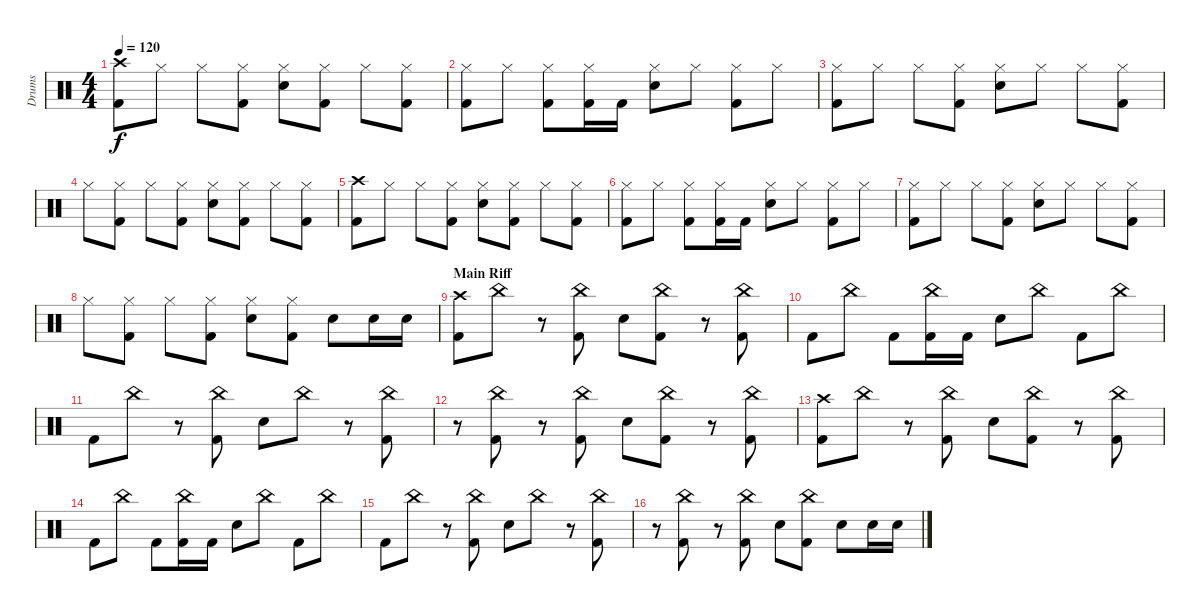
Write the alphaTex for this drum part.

\track ("Drums" "Drums") {instrument percussion}
\staff {score}
\articulation defaults
\ts (4 4)
\tempo 120
\clef neutral
\ks c
("Crash high (hit)" "Kick (hit) 2").8{dy f} "Hi-Hat (closed)".8 "Hi-Hat (closed)".8 ("Hi-Hat (closed)" "Kick (hit) 2").8 ("Hi-Hat (closed)" "Snare (hit) 2").8 ("Hi-Hat (closed)" "Kick (hit) 2").8 "Hi-Hat (closed)".8 ("Hi-Hat (closed)" "Kick (hit) 2").8 |
("Hi-Hat (closed)" "Kick (hit) 2").8 "Hi-Hat (closed)".8 ("Hi-Hat (closed)" "Kick (hit) 2").8 ("Hi-Hat (closed)" "Kick (hit) 2").16 "Kick (hit) 2".16 ("Hi-Hat (closed)" "Snare (hit) 2").8 "Hi-Hat (closed)".8 ("Hi-Hat (closed)" "Kick (hit) 2").8 "Hi-Hat (closed)".8 |
("Hi-Hat (closed)" "Kick (hit) 2").8 "Hi-Hat (closed)".8 "Hi-Hat (closed)".8 ("Hi-Hat (closed)" "Kick (hit) 2").8 ("Hi-Hat (closed)" "Snare (hit) 2").8 "Hi-Hat (closed)".8 "Hi-Hat (closed)".8 ("Hi-Hat (closed)" "Kick (hit) 2").8 |
"Hi-Hat (closed)".8 ("Hi-Hat (closed)" "Kick (hit) 2").8 "Hi-Hat (closed)".8 ("Hi-Hat (closed)" "Kick (hit) 2").8 ("Hi-Hat (closed)" "Snare (hit) 2").8 ("Hi-Hat (closed)" "Kick (hit) 2").8 "Hi-Hat (closed)".8 ("Hi-Hat (closed)" "Kick (hit) 2").8 |
("Crash high (hit)" "Kick (hit) 2").8 "Hi-Hat (closed)".8 "Hi-Hat (closed)".8 ("Hi-Hat (closed)" "Kick (hit) 2").8 ("Hi-Hat (closed)" "Snare (hit) 2").8 ("Hi-Hat (closed)" "Kick (hit) 2").8 "Hi-Hat (closed)".8 ("Hi-Hat (closed)" "Kick (hit) 2").8 |
("Hi-Hat (closed)" "Kick (hit) 2").8 "Hi-Hat (closed)".8 ("Hi-Hat (closed)" "Kick (hit) 2").8 ("Hi-Hat (closed)" "Kick (hit) 2").16 "Kick (hit) 2".16 ("Hi-Hat (closed)" "Snare (hit) 2").8 "Hi-Hat (closed)".8 ("Hi-Hat (closed)" "Kick (hit) 2").8 "Hi-Hat (closed)".8 |
("Hi-Hat (closed)" "Kick (hit) 2").8 "Hi-Hat (closed)".8 "Hi-Hat (closed)".8 ("Hi-Hat (closed)" "Kick (hit) 2").8 ("Hi-Hat (closed)" "Snare (hit) 2").8 "Hi-Hat (closed)".8 "Hi-Hat (closed)".8 ("Hi-Hat (closed)" "Kick (hit) 2").8 |
"Hi-Hat (closed)".8 ("Hi-Hat (closed)" "Kick (hit) 2").8 "Hi-Hat (closed)".8 ("Hi-Hat (closed)" "Kick (hit) 2").8 ("Hi-Hat (closed)" "Snare (hit) 2").8 ("Hi-Hat (closed)" "Kick (hit) 2").8 "Snare (hit) 2".8 "Snare (hit) 2".16 "Snare (hit) 2".16 |
\section ("" "Main Riff")
("Crash high (hit)" "Kick (hit) 2").8 "China (hit)".8 r.8 ("China (hit)" "Kick (hit) 2").8 "Snare (hit) 2".8 ("China (hit)" "Kick (hit) 2").8 r.8 ("China (hit)" "Kick (hit) 2").8 |
"Kick (hit) 2".8 "China (hit)".8 "Kick (hit) 2".8 ("China (hit)" "Kick (hit) 2").16 "Kick (hit) 2".16 "Snare (hit) 2".8 "China (hit)".8 "Kick (hit) 2".8 "China (hit)".8 |
"Kick (hit) 2".8 "China (hit)".8 r.8 ("China (hit)" "Kick (hit) 2").8 "Snare (hit) 2".8 "China (hit)".8 r.8 ("China (hit)" "Kick (hit) 2").8 |
r.8 ("China (hit)" "Kick (hit) 2").8 r.8 ("China (hit)" "Kick (hit) 2").8 "Snare (hit) 2".8 ("China (hit)" "Kick (hit) 2").8 r.8 ("China (hit)" "Kick (hit) 2").8 |
("Crash high (hit)" "Kick (hit) 2").8 "China (hit)".8 r.8 ("China (hit)" "Kick (hit) 2").8 "Snare (hit) 2".8 ("China (hit)" "Kick (hit) 2").8 r.8 ("China (hit)" "Kick (hit) 2").8 |
"Kick (hit) 2".8 "China (hit)".8 "Kick (hit) 2".8 ("China (hit)" "Kick (hit) 2").16 "Kick (hit) 2".16 "Snare (hit) 2".8 "China (hit)".8 "Kick (hit) 2".8 "China (hit)".8 |
"Kick (hit) 2".8 "China (hit)".8 r.8 ("China (hit)" "Kick (hit) 2").8 "Snare (hit) 2".8 "China (hit)".8 r.8 ("China (hit)" "Kick (hit) 2").8 |
r.8 ("China (hit)" "Kick (hit) 2").8 r.8 ("China (hit)" "Kick (hit) 2").8 "Snare (hit) 2".8 ("China (hit)" "Kick (hit) 2").8 "Snare (hit) 2".8 "Snare (hit) 2".16 "Snare (hit) 2".16
